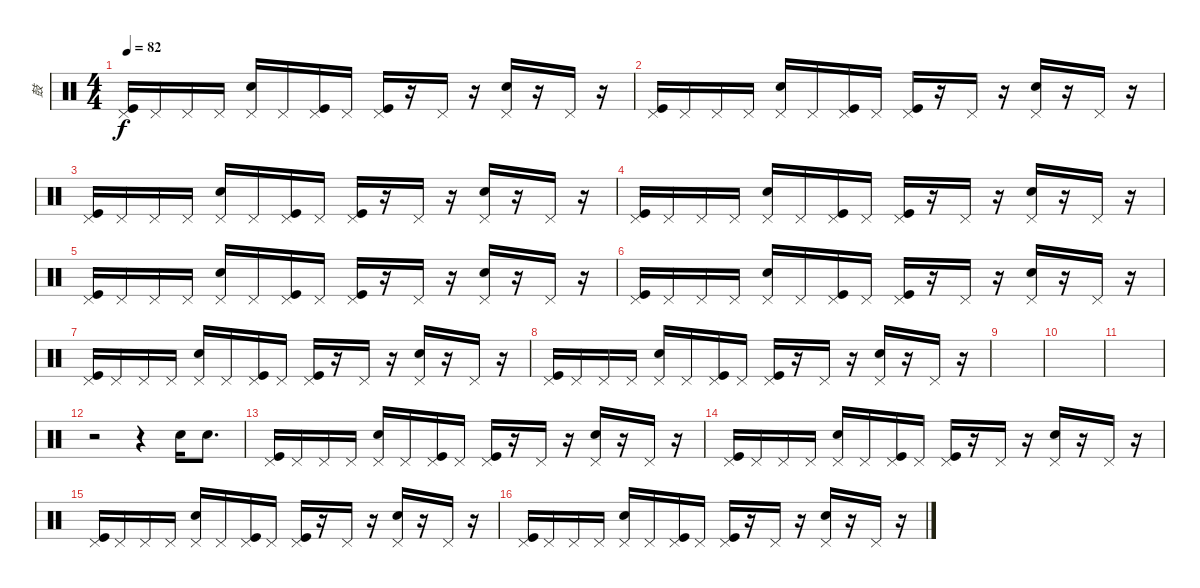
\track ("鼓" "鼓") {instrument percussion}
\staff {score}
\articulation defaults
\ts (4 4)
\tempo 82
\clef neutral
\ks c
("Pedal Hi-Hat (hit)" "Kick (hit)").16{dy f} "Pedal Hi-Hat (hit)".16 "Pedal Hi-Hat (hit)".16 "Pedal Hi-Hat (hit)".16 ("Pedal Hi-Hat (hit)" "Electric Snare (hit)").16 "Pedal Hi-Hat (hit)".16 ("Pedal Hi-Hat (hit)" "Kick (hit)").16 "Pedal Hi-Hat (hit)".16 ("Pedal Hi-Hat (hit)" "Kick (hit)").16 r.16 "Pedal Hi-Hat (hit)".16 r.16 ("Pedal Hi-Hat (hit)" "Electric Snare (hit)").16 r.16 "Pedal Hi-Hat (hit)".16 r.16 |
("Pedal Hi-Hat (hit)" "Kick (hit)").16 "Pedal Hi-Hat (hit)".16 "Pedal Hi-Hat (hit)".16 "Pedal Hi-Hat (hit)".16 ("Pedal Hi-Hat (hit)" "Electric Snare (hit)").16 "Pedal Hi-Hat (hit)".16 ("Pedal Hi-Hat (hit)" "Kick (hit)").16 "Pedal Hi-Hat (hit)".16 ("Pedal Hi-Hat (hit)" "Kick (hit)").16 r.16 "Pedal Hi-Hat (hit)".16 r.16 ("Pedal Hi-Hat (hit)" "Electric Snare (hit)").16 r.16 "Pedal Hi-Hat (hit)".16 r.16 |
("Pedal Hi-Hat (hit)" "Kick (hit)").16 "Pedal Hi-Hat (hit)".16 "Pedal Hi-Hat (hit)".16 "Pedal Hi-Hat (hit)".16 ("Pedal Hi-Hat (hit)" "Electric Snare (hit)").16 "Pedal Hi-Hat (hit)".16 ("Pedal Hi-Hat (hit)" "Kick (hit)").16 "Pedal Hi-Hat (hit)".16 ("Pedal Hi-Hat (hit)" "Kick (hit)").16 r.16 "Pedal Hi-Hat (hit)".16 r.16 ("Pedal Hi-Hat (hit)" "Electric Snare (hit)").16 r.16 "Pedal Hi-Hat (hit)".16 r.16 |
("Pedal Hi-Hat (hit)" "Kick (hit)").16 "Pedal Hi-Hat (hit)".16 "Pedal Hi-Hat (hit)".16 "Pedal Hi-Hat (hit)".16 ("Pedal Hi-Hat (hit)" "Electric Snare (hit)").16 "Pedal Hi-Hat (hit)".16 ("Pedal Hi-Hat (hit)" "Kick (hit)").16 "Pedal Hi-Hat (hit)".16 ("Pedal Hi-Hat (hit)" "Kick (hit)").16 r.16 "Pedal Hi-Hat (hit)".16 r.16 ("Pedal Hi-Hat (hit)" "Electric Snare (hit)").16 r.16 "Pedal Hi-Hat (hit)".16 r.16 |
("Pedal Hi-Hat (hit)" "Kick (hit)").16 "Pedal Hi-Hat (hit)".16 "Pedal Hi-Hat (hit)".16 "Pedal Hi-Hat (hit)".16 ("Pedal Hi-Hat (hit)" "Electric Snare (hit)").16 "Pedal Hi-Hat (hit)".16 ("Pedal Hi-Hat (hit)" "Kick (hit)").16 "Pedal Hi-Hat (hit)".16 ("Pedal Hi-Hat (hit)" "Kick (hit)").16 r.16 "Pedal Hi-Hat (hit)".16 r.16 ("Pedal Hi-Hat (hit)" "Electric Snare (hit)").16 r.16 "Pedal Hi-Hat (hit)".16 r.16 |
("Pedal Hi-Hat (hit)" "Kick (hit)").16 "Pedal Hi-Hat (hit)".16 "Pedal Hi-Hat (hit)".16 "Pedal Hi-Hat (hit)".16 ("Pedal Hi-Hat (hit)" "Electric Snare (hit)").16 "Pedal Hi-Hat (hit)".16 ("Pedal Hi-Hat (hit)" "Kick (hit)").16 "Pedal Hi-Hat (hit)".16 ("Pedal Hi-Hat (hit)" "Kick (hit)").16 r.16 "Pedal Hi-Hat (hit)".16 r.16 ("Pedal Hi-Hat (hit)" "Electric Snare (hit)").16 r.16 "Pedal Hi-Hat (hit)".16 r.16 |
("Pedal Hi-Hat (hit)" "Kick (hit)").16 "Pedal Hi-Hat (hit)".16 "Pedal Hi-Hat (hit)".16 "Pedal Hi-Hat (hit)".16 ("Pedal Hi-Hat (hit)" "Electric Snare (hit)").16 "Pedal Hi-Hat (hit)".16 ("Pedal Hi-Hat (hit)" "Kick (hit)").16 "Pedal Hi-Hat (hit)".16 ("Pedal Hi-Hat (hit)" "Kick (hit)").16 r.16 "Pedal Hi-Hat (hit)".16 r.16 ("Pedal Hi-Hat (hit)" "Electric Snare (hit)").16 r.16 "Pedal Hi-Hat (hit)".16 r.16 |
("Pedal Hi-Hat (hit)" "Kick (hit)").16 "Pedal Hi-Hat (hit)".16 "Pedal Hi-Hat (hit)".16 "Pedal Hi-Hat (hit)".16 ("Pedal Hi-Hat (hit)" "Electric Snare (hit)").16 "Pedal Hi-Hat (hit)".16 ("Pedal Hi-Hat (hit)" "Kick (hit)").16 "Pedal Hi-Hat (hit)".16 ("Pedal Hi-Hat (hit)" "Kick (hit)").16 r.16 "Pedal Hi-Hat (hit)".16 r.16 ("Pedal Hi-Hat (hit)" "Electric Snare (hit)").16 r.16 "Pedal Hi-Hat (hit)".16 r.16 |
|
|
|
r.2 r.4 "Electric Snare (hit)".16 "Electric Snare (hit)".8{d} |
("Pedal Hi-Hat (hit)" "Kick (hit)").16 "Pedal Hi-Hat (hit)".16 "Pedal Hi-Hat (hit)".16 "Pedal Hi-Hat (hit)".16 ("Pedal Hi-Hat (hit)" "Electric Snare (hit)").16 "Pedal Hi-Hat (hit)".16 ("Pedal Hi-Hat (hit)" "Kick (hit)").16 "Pedal Hi-Hat (hit)".16 ("Pedal Hi-Hat (hit)" "Kick (hit)").16 r.16 "Pedal Hi-Hat (hit)".16 r.16 ("Pedal Hi-Hat (hit)" "Electric Snare (hit)").16 r.16 "Pedal Hi-Hat (hit)".16 r.16 |
("Pedal Hi-Hat (hit)" "Kick (hit)").16 "Pedal Hi-Hat (hit)".16 "Pedal Hi-Hat (hit)".16 "Pedal Hi-Hat (hit)".16 ("Pedal Hi-Hat (hit)" "Electric Snare (hit)").16 "Pedal Hi-Hat (hit)".16 ("Pedal Hi-Hat (hit)" "Kick (hit)").16 "Pedal Hi-Hat (hit)".16 ("Pedal Hi-Hat (hit)" "Kick (hit)").16 r.16 "Pedal Hi-Hat (hit)".16 r.16 ("Pedal Hi-Hat (hit)" "Electric Snare (hit)").16 r.16 "Pedal Hi-Hat (hit)".16 r.16 |
("Pedal Hi-Hat (hit)" "Kick (hit)").16 "Pedal Hi-Hat (hit)".16 "Pedal Hi-Hat (hit)".16 "Pedal Hi-Hat (hit)".16 ("Pedal Hi-Hat (hit)" "Electric Snare (hit)").16 "Pedal Hi-Hat (hit)".16 ("Pedal Hi-Hat (hit)" "Kick (hit)").16 "Pedal Hi-Hat (hit)".16 ("Pedal Hi-Hat (hit)" "Kick (hit)").16 r.16 "Pedal Hi-Hat (hit)".16 r.16 ("Pedal Hi-Hat (hit)" "Electric Snare (hit)").16 r.16 "Pedal Hi-Hat (hit)".16 r.16 |
("Pedal Hi-Hat (hit)" "Kick (hit)").16 "Pedal Hi-Hat (hit)".16 "Pedal Hi-Hat (hit)".16 "Pedal Hi-Hat (hit)".16 ("Pedal Hi-Hat (hit)" "Electric Snare (hit)").16 "Pedal Hi-Hat (hit)".16 ("Pedal Hi-Hat (hit)" "Kick (hit)").16 "Pedal Hi-Hat (hit)".16 ("Pedal Hi-Hat (hit)" "Kick (hit)").16 r.16 "Pedal Hi-Hat (hit)".16 r.16 ("Pedal Hi-Hat (hit)" "Electric Snare (hit)").16 r.16 "Pedal Hi-Hat (hit)".16 r.16
